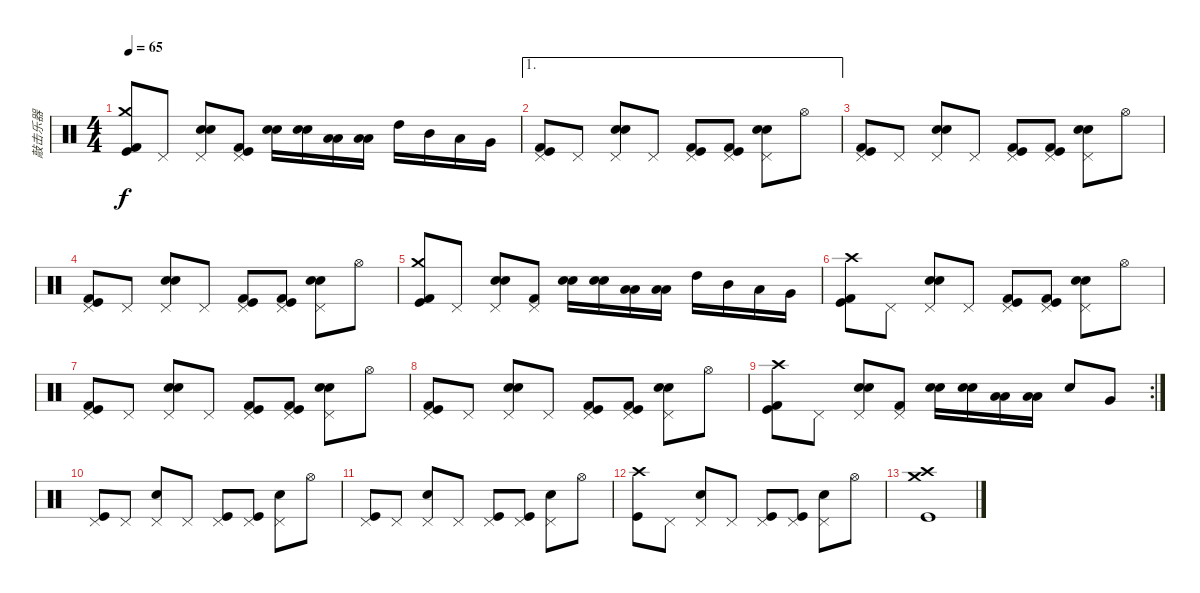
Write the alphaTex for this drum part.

\track ("敲击乐器" "敲击乐器") {instrument percussion}
\staff {score}
\articulation defaults
\ts (4 4)
\tempo 65
\clef neutral
\ks c
("Kick (hit)" "Crash medium (hit)" "Kick (hit) 2").8{dy f} "Pedal Hi-Hat (hit)".8 ("Electric Snare (hit)" "Pedal Hi-Hat (hit)" "Snare (hit) 2").8 ("Kick (hit)" "Pedal Hi-Hat (hit)" "Kick (hit) 2").8 ("Snare (hit) 2" "Electric Snare (hit)").16 ("Snare (hit) 2" "Electric Snare (hit)").16 ("Low Tom (hit)" "Low Tom (hit)").16 ("Low Tom (hit)" "Low Tom (hit)").16 "High Tom (hit)".16 "Mid Tom (hit)".16 "Low Tom (hit)".16 "Very Low Tom (hit)".16 |
\ae 1
("Kick (hit)" "Pedal Hi-Hat (hit)" "Kick (hit) 2").8 "Pedal Hi-Hat (hit)".8 ("Electric Snare (hit)" "Pedal Hi-Hat (hit)" "Snare (hit) 2").8 "Pedal Hi-Hat (hit)".8 ("Kick (hit)" "Pedal Hi-Hat (hit)" "Kick (hit) 2").8 ("Kick (hit)" "Pedal Hi-Hat (hit)" "Kick (hit) 2").8 ("Electric Snare (hit)" "Pedal Hi-Hat (hit)" "Snare (hit) 2").8 "Hi-Hat (open)".8 |
("Kick (hit)" "Pedal Hi-Hat (hit)" "Kick (hit) 2").8 "Pedal Hi-Hat (hit)".8 ("Electric Snare (hit)" "Pedal Hi-Hat (hit)" "Snare (hit) 2").8 "Pedal Hi-Hat (hit)".8 ("Kick (hit)" "Pedal Hi-Hat (hit)" "Kick (hit) 2").8 ("Kick (hit)" "Pedal Hi-Hat (hit)" "Kick (hit) 2").8 ("Electric Snare (hit)" "Pedal Hi-Hat (hit)" "Snare (hit) 2").8 "Hi-Hat (open)".8 |
("Kick (hit)" "Pedal Hi-Hat (hit)" "Kick (hit) 2").8 "Pedal Hi-Hat (hit)".8 ("Electric Snare (hit)" "Pedal Hi-Hat (hit)" "Snare (hit) 2").8 "Pedal Hi-Hat (hit)".8 ("Kick (hit)" "Pedal Hi-Hat (hit)" "Kick (hit) 2").8 ("Kick (hit)" "Pedal Hi-Hat (hit)" "Kick (hit) 2").8 ("Electric Snare (hit)" "Pedal Hi-Hat (hit)" "Snare (hit) 2").8 "Hi-Hat (open)".8 |
("Kick (hit)" "Crash medium (hit)" "Kick (hit) 2").8 "Pedal Hi-Hat (hit)".8 ("Electric Snare (hit)" "Pedal Hi-Hat (hit)" "Snare (hit) 2").8 ("Pedal Hi-Hat (hit)" "Kick (hit) 2").8 ("Snare (hit) 2" "Electric Snare (hit)").16 ("Snare (hit) 2" "Electric Snare (hit)").16 ("Low Tom (hit)" "Low Tom (hit)").16 ("Low Tom (hit)" "Low Tom (hit)").16 "High Tom (hit)".16 "Mid Tom (hit)".16 "Low Tom (hit)".16 "Very Low Tom (hit)".16 |
("Kick (hit)" "Crash high (hit)" "Kick (hit) 2").8 "Pedal Hi-Hat (hit)".8 ("Electric Snare (hit)" "Pedal Hi-Hat (hit)" "Snare (hit) 2").8 "Pedal Hi-Hat (hit)".8 ("Kick (hit)" "Pedal Hi-Hat (hit)" "Kick (hit) 2").8 ("Kick (hit)" "Pedal Hi-Hat (hit)" "Kick (hit) 2").8 ("Electric Snare (hit)" "Pedal Hi-Hat (hit)" "Snare (hit) 2").8 "Hi-Hat (open)".8 |
("Kick (hit)" "Pedal Hi-Hat (hit)" "Kick (hit) 2").8 "Pedal Hi-Hat (hit)".8 ("Electric Snare (hit)" "Pedal Hi-Hat (hit)" "Snare (hit) 2").8 "Pedal Hi-Hat (hit)".8 ("Kick (hit)" "Pedal Hi-Hat (hit)" "Kick (hit) 2").8 ("Kick (hit)" "Pedal Hi-Hat (hit)" "Kick (hit) 2").8 ("Electric Snare (hit)" "Pedal Hi-Hat (hit)" "Snare (hit) 2").8 "Hi-Hat (open)".8 |
("Kick (hit)" "Pedal Hi-Hat (hit)" "Kick (hit) 2").8 "Pedal Hi-Hat (hit)".8 ("Electric Snare (hit)" "Pedal Hi-Hat (hit)" "Snare (hit) 2").8 "Pedal Hi-Hat (hit)".8 ("Kick (hit)" "Pedal Hi-Hat (hit)" "Kick (hit) 2").8 ("Kick (hit)" "Pedal Hi-Hat (hit)" "Kick (hit) 2").8 ("Electric Snare (hit)" "Pedal Hi-Hat (hit)" "Snare (hit) 2").8 "Hi-Hat (open)".8 |
\rc 2
("Kick (hit)" "Crash high (hit)" "Kick (hit) 2").8 "Pedal Hi-Hat (hit)".8 ("Electric Snare (hit)" "Pedal Hi-Hat (hit)" "Snare (hit) 2").8 ("Pedal Hi-Hat (hit)" "Kick (hit) 2").8 ("Snare (hit) 2" "Electric Snare (hit)").16 ("Snare (hit) 2" "Electric Snare (hit)").16 ("Low Tom (hit)" "Low Tom (hit)").16 ("Low Tom (hit)" "Low Tom (hit)").16 "Electric Snare (hit)".8 "Very Low Tom (hit)".8 |
("Kick (hit)" "Pedal Hi-Hat (hit)").8 "Pedal Hi-Hat (hit)".8 ("Electric Snare (hit)" "Pedal Hi-Hat (hit)").8 "Pedal Hi-Hat (hit)".8 ("Kick (hit)" "Pedal Hi-Hat (hit)").8 ("Kick (hit)" "Pedal Hi-Hat (hit)").8 ("Electric Snare (hit)" "Pedal Hi-Hat (hit)").8 "Hi-Hat (open)".8 |
("Kick (hit)" "Pedal Hi-Hat (hit)").8 "Pedal Hi-Hat (hit)".8 ("Electric Snare (hit)" "Pedal Hi-Hat (hit)").8 "Pedal Hi-Hat (hit)".8 ("Kick (hit)" "Pedal Hi-Hat (hit)").8 ("Kick (hit)" "Pedal Hi-Hat (hit)").8 ("Electric Snare (hit)" "Pedal Hi-Hat (hit)").8 "Hi-Hat (open)".8 |
("Kick (hit)" "Crash high (hit)").8 "Pedal Hi-Hat (hit)".8 ("Electric Snare (hit)" "Pedal Hi-Hat (hit)").8 "Pedal Hi-Hat (hit)".8 ("Kick (hit)" "Pedal Hi-Hat (hit)").8 ("Kick (hit)" "Pedal Hi-Hat (hit)").8 ("Electric Snare (hit)" "Pedal Hi-Hat (hit)").8 "Hi-Hat (open)".8 |
("Kick (hit)" "Crash high (hit)" "Crash medium (hit)").1
